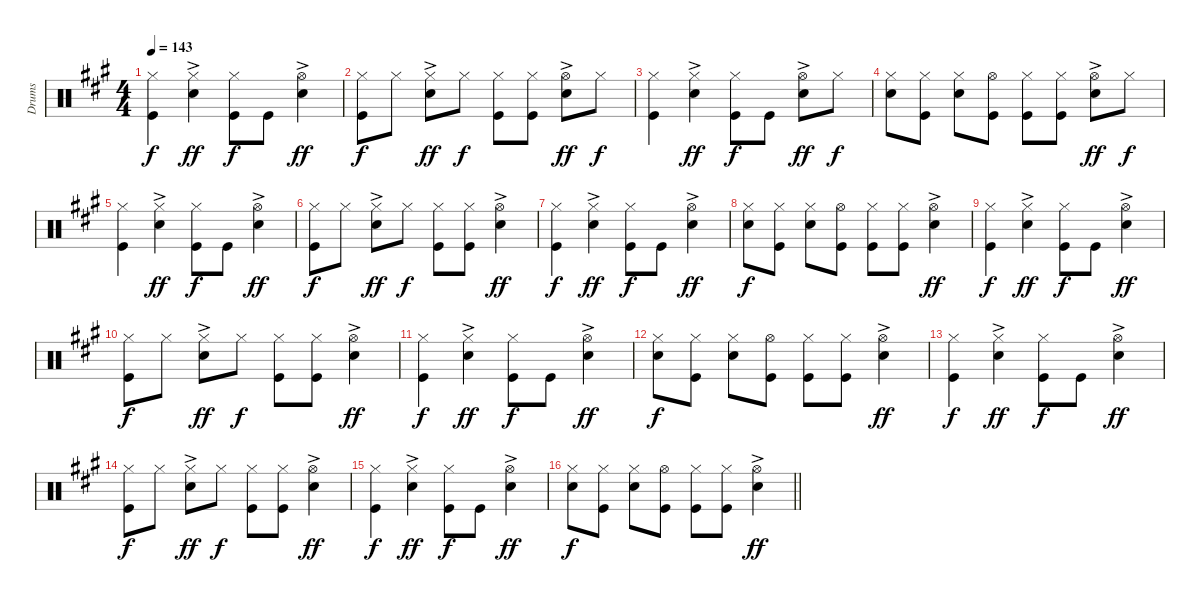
\track ("Drums" "Drums") {instrument percussion}
\staff {score}
\articulation defaults
\ts (4 4)
\tempo 143
\clef neutral
\ks a
("Hi-Hat (closed)" "Kick (hit)").4{dy f volume 5} ("Hi-Hat (closed)" "Snare (hit) 2"{ac}).4{dy ff} ("Hi-Hat (closed)" "Kick (hit)").8{dy f} "Kick (hit)".8 ("Hi-Hat (open)"{ac} "Snare (hit) 2").4{dy ff} |
("Hi-Hat (closed)" "Kick (hit)").8{dy f} "Hi-Hat (closed)".8 ("Hi-Hat (closed)" "Snare (hit) 2"{ac}).8{dy ff} "Hi-Hat (closed)".8{dy f} ("Hi-Hat (closed)" "Kick (hit)").8 ("Hi-Hat (closed)" "Kick (hit)").8 ("Hi-Hat (open)"{ac} "Snare (hit) 2").8{dy ff} "Hi-Hat (closed)".8{dy f} |
("Hi-Hat (closed)" "Kick (hit)").4{volume 5} ("Hi-Hat (closed)" "Snare (hit) 2"{ac}).4{dy ff} ("Hi-Hat (closed)" "Kick (hit)").8{dy f} "Kick (hit)".8 ("Hi-Hat (open)"{ac} "Snare (hit) 2").8{dy ff} "Hi-Hat (closed)".8{dy f} |
("Hi-Hat (closed)" "Snare (hit) 2").8 ("Hi-Hat (closed)" "Kick (hit)").8 ("Hi-Hat (closed)" "Snare (hit) 2").8 ("Hi-Hat (open)" "Kick (hit)").8 ("Hi-Hat (closed)" "Kick (hit)").8 ("Hi-Hat (closed)" "Kick (hit)").8 ("Hi-Hat (open)" "Snare (hit) 2"{ac}).8{dy ff} "Hi-Hat (closed)".8{dy f} |
("Hi-Hat (closed)" "Kick (hit)").4{volume 5} ("Hi-Hat (closed)" "Snare (hit) 2"{ac}).4{dy ff} ("Hi-Hat (closed)" "Kick (hit)").8{dy f} "Kick (hit)".8 ("Hi-Hat (open)"{ac} "Snare (hit) 2").4{dy ff} |
("Hi-Hat (closed)" "Kick (hit)").8{dy f} "Hi-Hat (closed)".8 ("Hi-Hat (closed)" "Snare (hit) 2"{ac}).8{dy ff} "Hi-Hat (closed)".8{dy f} ("Hi-Hat (closed)" "Kick (hit)").8 ("Hi-Hat (closed)" "Kick (hit)").8 ("Hi-Hat (open)"{ac} "Snare (hit) 2").4{dy ff} |
("Hi-Hat (closed)" "Kick (hit)").4{dy f volume 5} ("Hi-Hat (closed)" "Snare (hit) 2"{ac}).4{dy ff} ("Hi-Hat (closed)" "Kick (hit)").8{dy f} "Kick (hit)".8 ("Hi-Hat (open)"{ac} "Snare (hit) 2").4{dy ff} |
("Hi-Hat (closed)" "Snare (hit) 2").8{dy f} ("Hi-Hat (closed)" "Kick (hit)").8 ("Hi-Hat (closed)" "Snare (hit) 2").8 ("Hi-Hat (open)" "Kick (hit)").8 ("Hi-Hat (closed)" "Kick (hit)").8 ("Hi-Hat (closed)" "Kick (hit)").8 ("Hi-Hat (open)" "Snare (hit) 2"{ac}).4{dy ff} |
("Hi-Hat (closed)" "Kick (hit)").4{dy f volume 5} ("Hi-Hat (closed)" "Snare (hit) 2"{ac}).4{dy ff} ("Hi-Hat (closed)" "Kick (hit)").8{dy f} "Kick (hit)".8 ("Hi-Hat (open)"{ac} "Snare (hit) 2").4{dy ff} |
("Hi-Hat (closed)" "Kick (hit)").8{dy f} "Hi-Hat (closed)".8 ("Hi-Hat (closed)" "Snare (hit) 2"{ac}).8{dy ff} "Hi-Hat (closed)".8{dy f} ("Hi-Hat (closed)" "Kick (hit)").8 ("Hi-Hat (closed)" "Kick (hit)").8 ("Hi-Hat (open)"{ac} "Snare (hit) 2").4{dy ff} |
("Hi-Hat (closed)" "Kick (hit)").4{dy f volume 5} ("Hi-Hat (closed)" "Snare (hit) 2"{ac}).4{dy ff} ("Hi-Hat (closed)" "Kick (hit)").8{dy f} "Kick (hit)".8 ("Hi-Hat (open)"{ac} "Snare (hit) 2").4{dy ff} |
("Hi-Hat (closed)" "Snare (hit) 2").8{dy f} ("Hi-Hat (closed)" "Kick (hit)").8 ("Hi-Hat (closed)" "Snare (hit) 2").8 ("Hi-Hat (open)" "Kick (hit)").8 ("Hi-Hat (closed)" "Kick (hit)").8 ("Hi-Hat (closed)" "Kick (hit)").8 ("Hi-Hat (open)" "Snare (hit) 2"{ac}).4{dy ff} |
("Hi-Hat (closed)" "Kick (hit)").4{dy f volume 5} ("Hi-Hat (closed)" "Snare (hit) 2"{ac}).4{dy ff} ("Hi-Hat (closed)" "Kick (hit)").8{dy f} "Kick (hit)".8 ("Hi-Hat (open)"{ac} "Snare (hit) 2").4{dy ff} |
("Hi-Hat (closed)" "Kick (hit)").8{dy f} "Hi-Hat (closed)".8 ("Hi-Hat (closed)" "Snare (hit) 2"{ac}).8{dy ff} "Hi-Hat (closed)".8{dy f} ("Hi-Hat (closed)" "Kick (hit)").8 ("Hi-Hat (closed)" "Kick (hit)").8 ("Hi-Hat (open)"{ac} "Snare (hit) 2").4{dy ff} |
("Hi-Hat (closed)" "Kick (hit)").4{dy f volume 5} ("Hi-Hat (closed)" "Snare (hit) 2"{ac}).4{dy ff} ("Hi-Hat (closed)" "Kick (hit)").8{dy f} "Kick (hit)".8 ("Hi-Hat (open)"{ac} "Snare (hit) 2").4{dy ff} |
\barLineRight lightlight
("Hi-Hat (closed)" "Snare (hit) 2").8{dy f} ("Hi-Hat (closed)" "Kick (hit)").8 ("Hi-Hat (closed)" "Snare (hit) 2").8 ("Hi-Hat (open)" "Kick (hit)").8 ("Hi-Hat (closed)" "Kick (hit)").8 ("Hi-Hat (closed)" "Kick (hit)").8 ("Hi-Hat (open)" "Snare (hit) 2"{ac}).4{dy ff}
